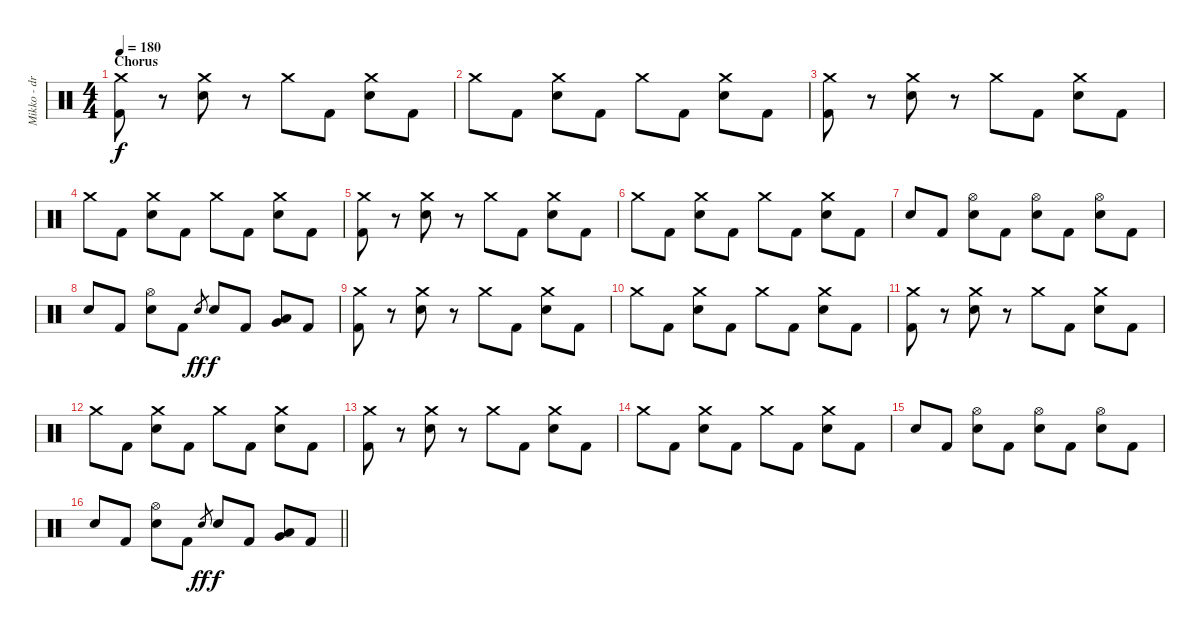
\track ("Mikko - drums" "Mikko - dr") {instrument percussion}
\staff {score}
\articulation defaults
\ts (4 4)
\section ("" "Chorus")
\tempo 180
\clef neutral
\ks c
("Crash medium (hit)" "Kick (hit) 2").8{dy f} r.8 ("Crash medium (hit)" "Snare (hit) 2").8 r.8 "Crash medium (hit)".8 "Kick (hit) 2".8 ("Crash medium (hit)" "Snare (hit) 2").8 "Kick (hit) 2".8 |
"Crash medium (hit)".8 "Kick (hit) 2".8 ("Crash medium (hit)" "Snare (hit) 2").8 "Kick (hit) 2".8 "Crash medium (hit)".8 "Kick (hit) 2".8 ("Crash medium (hit)" "Snare (hit) 2").8 "Kick (hit) 2".8 |
("Crash medium (hit)" "Kick (hit) 2").8 r.8 ("Crash medium (hit)" "Snare (hit) 2").8 r.8 "Crash medium (hit)".8 "Kick (hit) 2".8 ("Crash medium (hit)" "Snare (hit) 2").8 "Kick (hit) 2".8 |
"Crash medium (hit)".8 "Kick (hit) 2".8 ("Crash medium (hit)" "Snare (hit) 2").8 "Kick (hit) 2".8 "Crash medium (hit)".8 "Kick (hit) 2".8 ("Crash medium (hit)" "Snare (hit) 2").8 "Kick (hit) 2".8 |
("Crash medium (hit)" "Kick (hit) 2").8 r.8 ("Crash medium (hit)" "Snare (hit) 2").8 r.8 "Crash medium (hit)".8 "Kick (hit) 2".8 ("Crash medium (hit)" "Snare (hit) 2").8 "Kick (hit) 2".8 |
"Crash medium (hit)".8 "Kick (hit) 2".8 ("Crash medium (hit)" "Snare (hit) 2").8 "Kick (hit) 2".8 "Crash medium (hit)".8 "Kick (hit) 2".8 ("Crash medium (hit)" "Snare (hit) 2").8 "Kick (hit) 2".8 |
"Snare (hit) 2".8 "Kick (hit) 2".8 ("Hi-Hat (open)" "Snare (hit) 2").8 "Kick (hit) 2".8 ("Hi-Hat (open)" "Snare (hit) 2").8 "Kick (hit) 2".8 ("Hi-Hat (open)" "Snare (hit) 2").8 "Kick (hit) 2".8 |
"Snare (hit) 2".8 "Kick (hit) 2".8 ("Hi-Hat (open)" "Snare (hit) 2").8 "Kick (hit) 2".8 "Snare (hit) 2".8{gr dy ff} "Snare (hit) 2".8{dy f} "Kick (hit) 2".8 ("Low Tom (hit)" "Very Low Tom (hit)").8 "Kick (hit) 2".8 |
("Crash medium (hit)" "Kick (hit) 2").8 r.8 ("Crash medium (hit)" "Snare (hit) 2").8 r.8 "Crash medium (hit)".8 "Kick (hit) 2".8 ("Crash medium (hit)" "Snare (hit) 2").8 "Kick (hit) 2".8 |
"Crash medium (hit)".8 "Kick (hit) 2".8 ("Crash medium (hit)" "Snare (hit) 2").8 "Kick (hit) 2".8 "Crash medium (hit)".8 "Kick (hit) 2".8 ("Crash medium (hit)" "Snare (hit) 2").8 "Kick (hit) 2".8 |
("Crash medium (hit)" "Kick (hit) 2").8 r.8 ("Crash medium (hit)" "Snare (hit) 2").8 r.8 "Crash medium (hit)".8 "Kick (hit) 2".8 ("Crash medium (hit)" "Snare (hit) 2").8 "Kick (hit) 2".8 |
"Crash medium (hit)".8 "Kick (hit) 2".8 ("Crash medium (hit)" "Snare (hit) 2").8 "Kick (hit) 2".8 "Crash medium (hit)".8 "Kick (hit) 2".8 ("Crash medium (hit)" "Snare (hit) 2").8 "Kick (hit) 2".8 |
("Crash medium (hit)" "Kick (hit) 2").8 r.8 ("Crash medium (hit)" "Snare (hit) 2").8 r.8 "Crash medium (hit)".8 "Kick (hit) 2".8 ("Crash medium (hit)" "Snare (hit) 2").8 "Kick (hit) 2".8 |
"Crash medium (hit)".8 "Kick (hit) 2".8 ("Crash medium (hit)" "Snare (hit) 2").8 "Kick (hit) 2".8 "Crash medium (hit)".8 "Kick (hit) 2".8 ("Crash medium (hit)" "Snare (hit) 2").8 "Kick (hit) 2".8 |
"Snare (hit) 2".8 "Kick (hit) 2".8 ("Hi-Hat (open)" "Snare (hit) 2").8 "Kick (hit) 2".8 ("Hi-Hat (open)" "Snare (hit) 2").8 "Kick (hit) 2".8 ("Hi-Hat (open)" "Snare (hit) 2").8 "Kick (hit) 2".8 |
\barLineRight lightlight "Snare (hit) 2".8 "Kick (hit) 2".8
("Hi-Hat (open)" "Snare (hit) 2").8 "Kick (hit) 2".8 "Snare (hit) 2".8{gr dy ff} "Snare (hit) 2".8{dy f} "Kick (hit) 2".8 ("Low Tom (hit)" "Very Low Tom (hit)").8 "Kick (hit) 2".8
